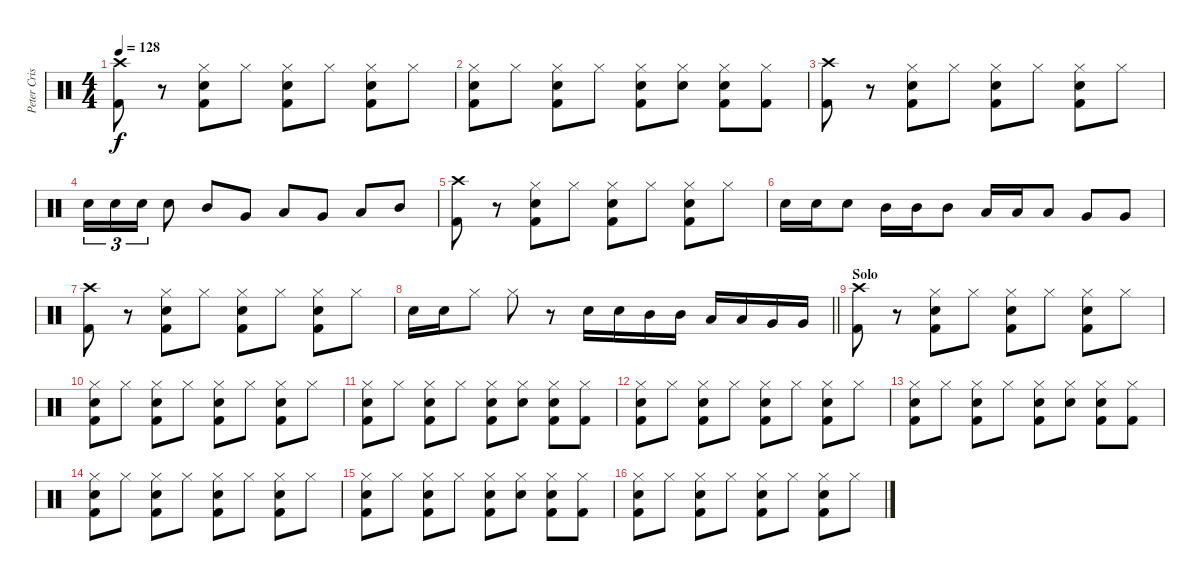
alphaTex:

\track ("Peter Criss" "Peter Cris") {instrument percussion}
\staff {score}
\articulation defaults
\ts (4 4)
\tempo 128
\clef neutral
\ks c
("Crash high (hit)" "Kick (hit) 2").8{dy f} r.8 ("Hi-Hat (closed)" "Electric Snare (hit)" "Kick (hit) 2").8 "Hi-Hat (closed)".8 ("Hi-Hat (closed)" "Electric Snare (hit)" "Kick (hit) 2").8 "Hi-Hat (closed)".8 ("Hi-Hat (closed)" "Electric Snare (hit)" "Kick (hit) 2").8 "Hi-Hat (closed)".8 |
("Hi-Hat (closed)" "Electric Snare (hit)" "Kick (hit) 2").8 "Hi-Hat (closed)".8 ("Hi-Hat (closed)" "Electric Snare (hit)" "Kick (hit) 2").8 "Hi-Hat (closed)".8 ("Hi-Hat (closed)" "Electric Snare (hit)" "Kick (hit) 2").8 ("Hi-Hat (closed)" "Electric Snare (hit)").8 ("Hi-Hat (closed)" "Electric Snare (hit)" "Kick (hit) 2").8 ("Hi-Hat (closed)" "Kick (hit) 2").8 |
("Crash high (hit)" "Kick (hit) 2").8 r.8 ("Hi-Hat (closed)" "Electric Snare (hit)" "Kick (hit) 2").8 "Hi-Hat (closed)".8 ("Hi-Hat (closed)" "Electric Snare (hit)" "Kick (hit) 2").8 "Hi-Hat (closed)".8 ("Hi-Hat (closed)" "Electric Snare (hit)" "Kick (hit) 2").8 "Hi-Hat (closed)".8 |
"Electric Snare (hit)".16{tu (3 2)} "Electric Snare (hit)".16{tu (3 2)} "Electric Snare (hit)".16{tu (3 2)} "Electric Snare (hit)".8 "Mid Tom (hit)".8 "Very Low Tom (hit)".8 "Low Tom (hit)".8 "Very Low Tom (hit)".8 "Low Tom (hit)".8 "Mid Tom (hit)".8 |
("Crash high (hit)" "Kick (hit) 2").8 r.8 ("Hi-Hat (closed)" "Electric Snare (hit)" "Kick (hit) 2").8 "Hi-Hat (closed)".8 ("Hi-Hat (closed)" "Electric Snare (hit)" "Kick (hit) 2").8 "Hi-Hat (closed)".8 ("Hi-Hat (closed)" "Electric Snare (hit)" "Kick (hit) 2").8 "Hi-Hat (closed)".8 |
"Electric Snare (hit)".16 "Electric Snare (hit)".16 "Electric Snare (hit)".8 "Mid Tom (hit)".16 "Mid Tom (hit)".16 "Mid Tom (hit)".8 "Low Tom (hit)".16 "Low Tom (hit)".16 "Low Tom (hit)".8 "Very Low Tom (hit)".8 "Very Low Tom (hit)".8 |
("Crash high (hit)" "Kick (hit) 2").8 r.8 ("Hi-Hat (closed)" "Electric Snare (hit)" "Kick (hit) 2").8 "Hi-Hat (closed)".8 ("Hi-Hat (closed)" "Electric Snare (hit)" "Kick (hit) 2").8 "Hi-Hat (closed)".8 ("Hi-Hat (closed)" "Electric Snare (hit)" "Kick (hit) 2").8 "Hi-Hat (closed)".8 |
\barLineRight lightlight "Electric Snare (hit)".16 "Electric Snare (hit)".16 "Hi-Hat (closed)".8 "Hi-Hat (closed)".8
r.8 "Electric Snare (hit)".16 "Electric Snare (hit)".16 "Mid Tom (hit)".16 "Mid Tom (hit)".16 "Low Tom (hit)".16 "Low Tom (hit)".16 "Very Low Tom (hit)".16 "Very Low Tom (hit)".16 |
\section ("" "Solo")
("Crash high (hit)" "Kick (hit) 2").8 r.8 ("Hi-Hat (closed)" "Electric Snare (hit)" "Kick (hit) 2").8 "Hi-Hat (closed)".8 ("Hi-Hat (closed)" "Electric Snare (hit)" "Kick (hit) 2").8 "Hi-Hat (closed)".8 ("Hi-Hat (closed)" "Electric Snare (hit)" "Kick (hit) 2").8 "Hi-Hat (closed)".8 |
("Hi-Hat (closed)" "Electric Snare (hit)" "Kick (hit) 2").8 "Hi-Hat (closed)".8 ("Hi-Hat (closed)" "Electric Snare (hit)" "Kick (hit) 2").8 "Hi-Hat (closed)".8 ("Hi-Hat (closed)" "Electric Snare (hit)" "Kick (hit) 2").8 "Hi-Hat (closed)".8 ("Hi-Hat (closed)" "Electric Snare (hit)" "Kick (hit) 2").8 "Hi-Hat (closed)".8 |
("Hi-Hat (closed)" "Electric Snare (hit)" "Kick (hit) 2").8 "Hi-Hat (closed)".8 ("Hi-Hat (closed)" "Electric Snare (hit)" "Kick (hit) 2").8 "Hi-Hat (closed)".8 ("Hi-Hat (closed)" "Electric Snare (hit)" "Kick (hit) 2").8 ("Hi-Hat (closed)" "Electric Snare (hit)").8 ("Hi-Hat (closed)" "Electric Snare (hit)" "Kick (hit) 2").8 ("Hi-Hat (closed)" "Kick (hit) 2").8 |
("Hi-Hat (closed)" "Electric Snare (hit)" "Kick (hit) 2").8 "Hi-Hat (closed)".8 ("Hi-Hat (closed)" "Electric Snare (hit)" "Kick (hit) 2").8 "Hi-Hat (closed)".8 ("Hi-Hat (closed)" "Electric Snare (hit)" "Kick (hit) 2").8 "Hi-Hat (closed)".8 ("Hi-Hat (closed)" "Electric Snare (hit)" "Kick (hit) 2").8 "Hi-Hat (closed)".8 |
("Hi-Hat (closed)" "Electric Snare (hit)" "Kick (hit) 2").8 "Hi-Hat (closed)".8 ("Hi-Hat (closed)" "Electric Snare (hit)" "Kick (hit) 2").8 "Hi-Hat (closed)".8 ("Hi-Hat (closed)" "Electric Snare (hit)" "Kick (hit) 2").8 ("Hi-Hat (closed)" "Electric Snare (hit)").8 ("Hi-Hat (closed)" "Electric Snare (hit)" "Kick (hit) 2").8 ("Hi-Hat (closed)" "Kick (hit) 2").8 |
("Hi-Hat (closed)" "Electric Snare (hit)" "Kick (hit) 2").8 "Hi-Hat (closed)".8 ("Hi-Hat (closed)" "Electric Snare (hit)" "Kick (hit) 2").8 "Hi-Hat (closed)".8 ("Hi-Hat (closed)" "Electric Snare (hit)" "Kick (hit) 2").8 "Hi-Hat (closed)".8 ("Hi-Hat (closed)" "Electric Snare (hit)" "Kick (hit) 2").8 "Hi-Hat (closed)".8 |
("Hi-Hat (closed)" "Electric Snare (hit)" "Kick (hit) 2").8 "Hi-Hat (closed)".8 ("Hi-Hat (closed)" "Electric Snare (hit)" "Kick (hit) 2").8 "Hi-Hat (closed)".8 ("Hi-Hat (closed)" "Electric Snare (hit)" "Kick (hit) 2").8 ("Hi-Hat (closed)" "Electric Snare (hit)").8 ("Hi-Hat (closed)" "Electric Snare (hit)" "Kick (hit) 2").8 ("Hi-Hat (closed)" "Kick (hit) 2").8 |
("Hi-Hat (closed)" "Electric Snare (hit)" "Kick (hit) 2").8 "Hi-Hat (closed)".8 ("Hi-Hat (closed)" "Electric Snare (hit)" "Kick (hit) 2").8 "Hi-Hat (closed)".8 ("Hi-Hat (closed)" "Electric Snare (hit)" "Kick (hit) 2").8 "Hi-Hat (closed)".8 ("Hi-Hat (closed)" "Electric Snare (hit)" "Kick (hit) 2").8 "Hi-Hat (closed)".8
